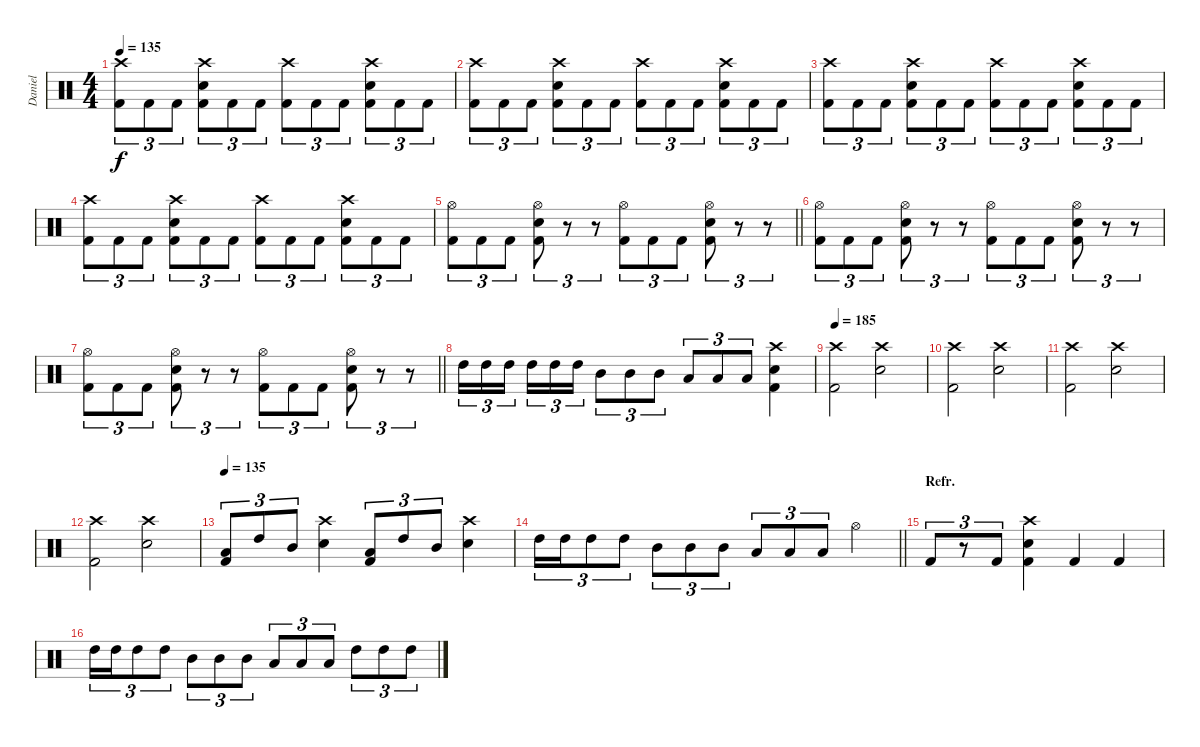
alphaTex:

\track ("Daniel" "Daniel") {instrument percussion}
\staff {score}
\articulation defaults
\ts (4 4)
\tempo 135
\clef neutral
\ks c
("Crash high (hit)" "Kick (hit) 2").8{tu (3 2) dy f} "Kick (hit) 2".8{tu (3 2)} "Kick (hit) 2".8{tu (3 2)} ("Crash high (hit)" "Electric Snare (hit)" "Kick (hit) 2").8{tu (3 2)} "Kick (hit) 2".8{tu (3 2)} "Kick (hit) 2".8{tu (3 2)} ("Crash high (hit)" "Kick (hit) 2").8{tu (3 2)} "Kick (hit) 2".8{tu (3 2)} "Kick (hit) 2".8{tu (3 2)} ("Crash high (hit)" "Electric Snare (hit)" "Kick (hit) 2").8{tu (3 2)} "Kick (hit) 2".8{tu (3 2)} "Kick (hit) 2".8{tu (3 2)} |
("Crash high (hit)" "Kick (hit) 2").8{tu (3 2)} "Kick (hit) 2".8{tu (3 2)} "Kick (hit) 2".8{tu (3 2)} ("Crash high (hit)" "Electric Snare (hit)" "Kick (hit) 2").8{tu (3 2)} "Kick (hit) 2".8{tu (3 2)} "Kick (hit) 2".8{tu (3 2)} ("Crash high (hit)" "Kick (hit) 2").8{tu (3 2)} "Kick (hit) 2".8{tu (3 2)} "Kick (hit) 2".8{tu (3 2)} ("Crash high (hit)" "Electric Snare (hit)" "Kick (hit) 2").8{tu (3 2)} "Kick (hit) 2".8{tu (3 2)} "Kick (hit) 2".8{tu (3 2)} |
("Crash high (hit)" "Kick (hit) 2").8{tu (3 2)} "Kick (hit) 2".8{tu (3 2)} "Kick (hit) 2".8{tu (3 2)} ("Crash high (hit)" "Electric Snare (hit)" "Kick (hit) 2").8{tu (3 2)} "Kick (hit) 2".8{tu (3 2)} "Kick (hit) 2".8{tu (3 2)} ("Crash high (hit)" "Kick (hit) 2").8{tu (3 2)} "Kick (hit) 2".8{tu (3 2)} "Kick (hit) 2".8{tu (3 2)} ("Crash high (hit)" "Electric Snare (hit)" "Kick (hit) 2").8{tu (3 2)} "Kick (hit) 2".8{tu (3 2)} "Kick (hit) 2".8{tu (3 2)} |
("Crash high (hit)" "Kick (hit) 2").8{tu (3 2)} "Kick (hit) 2".8{tu (3 2)} "Kick (hit) 2".8{tu (3 2)} ("Crash high (hit)" "Electric Snare (hit)" "Kick (hit) 2").8{tu (3 2)} "Kick (hit) 2".8{tu (3 2)} "Kick (hit) 2".8{tu (3 2)} ("Crash high (hit)" "Kick (hit) 2").8{tu (3 2)} "Kick (hit) 2".8{tu (3 2)} "Kick (hit) 2".8{tu (3 2)} ("Crash high (hit)" "Electric Snare (hit)" "Kick (hit) 2").8{tu (3 2)} "Kick (hit) 2".8{tu (3 2)} "Kick (hit) 2".8{tu (3 2)} |
\barLineRight lightlight
("Hi-Hat (open)" "Kick (hit) 2").8{tu (3 2)} "Kick (hit) 2".8{tu (3 2)} "Kick (hit) 2".8{tu (3 2)} ("Hi-Hat (open)" "Electric Snare (hit)" "Kick (hit) 2").8{tu (3 2)} r.8{tu (3 2)} r.8{tu (3 2)} ("Hi-Hat (open)" "Kick (hit) 2").8{tu (3 2)} "Kick (hit) 2".8{tu (3 2)} "Kick (hit) 2".8{tu (3 2)} ("Hi-Hat (open)" "Electric Snare (hit)" "Kick (hit) 2").8{tu (3 2)} r.8{tu (3 2)} r.8{tu (3 2)} |
("Hi-Hat (open)" "Kick (hit) 2").8{tu (3 2)} "Kick (hit) 2".8{tu (3 2)} "Kick (hit) 2".8{tu (3 2)} ("Hi-Hat (open)" "Electric Snare (hit)" "Kick (hit) 2").8{tu (3 2)} r.8{tu (3 2)} r.8{tu (3 2)} ("Hi-Hat (open)" "Kick (hit) 2").8{tu (3 2)} "Kick (hit) 2".8{tu (3 2)} "Kick (hit) 2".8{tu (3 2)} ("Hi-Hat (open)" "Electric Snare (hit)" "Kick (hit) 2").8{tu (3 2)} r.8{tu (3 2)} r.8{tu (3 2)} |
\barLineRight lightlight
("Hi-Hat (open)" "Kick (hit) 2").8{tu (3 2)} "Kick (hit) 2".8{tu (3 2)} "Kick (hit) 2".8{tu (3 2)} ("Hi-Hat (open)" "Electric Snare (hit)" "Kick (hit) 2").8{tu (3 2)} r.8{tu (3 2)} r.8{tu (3 2)} ("Hi-Hat (open)" "Kick (hit) 2").8{tu (3 2)} "Kick (hit) 2".8{tu (3 2)} "Kick (hit) 2".8{tu (3 2)} ("Hi-Hat (open)" "Electric Snare (hit)" "Kick (hit) 2").8{tu (3 2)} r.8{tu (3 2)} r.8{tu (3 2)} |
"High Tom (hit)".16{tu (3 2)} "High Tom (hit)".16{tu (3 2)} "High Tom (hit)".16{tu (3 2) beam splitsecondary} "High Tom (hit)".16{tu (3 2)} "High Tom (hit)".16{tu (3 2)} "High Tom (hit)".16{tu (3 2)} "Mid Tom (hit)".8{tu (3 2)} "Mid Tom (hit)".8{tu (3 2)} "Mid Tom (hit)".8{tu (3 2)} "Low Tom (hit)".8{tu (3 2)} "Low Tom (hit)".8{tu (3 2)} "Low Tom (hit)".8{tu (3 2)} ("Electric Snare (hit)" "Crash high (hit)" "Kick (hit) 2").4 |
\tempo 190
\tempo 185
("Crash high (hit)" "Kick (hit) 2").2 ("Crash high (hit)" "Electric Snare (hit)").2 |
("Crash high (hit)" "Kick (hit) 2").2 ("Crash high (hit)" "Electric Snare (hit)").2 |
("Crash high (hit)" "Kick (hit) 2").2 ("Crash high (hit)" "Electric Snare (hit)").2 |
("Crash high (hit)" "Kick (hit) 2").2 ("Crash high (hit)" "Electric Snare (hit)").2 |
\tempo 135
("Low Tom (hit)" "Kick (hit) 2").8{tu (3 2)} "High Tom (hit)".8{tu (3 2)} "Mid Tom (hit)".8{tu (3 2)} ("Crash high (hit)" "Electric Snare (hit)").4 ("Low Tom (hit)" "Kick (hit) 2").8{tu (3 2)} "High Tom (hit)".8{tu (3 2)} "Mid Tom (hit)".8{tu (3 2)} ("Crash high (hit)" "Electric Snare (hit)").4 |
\barLineRight lightlight "High Tom (hit)".16{tu (3 2)} "High Tom (hit)".16{tu (3 2)} "High Tom (hit)".8{tu (3 2)} "High Tom (hit)".8{tu (3 2)} "Mid Tom (hit)".8{tu (3 2)} "Mid Tom (hit)".8{tu (3 2)} "Mid Tom (hit)".8{tu (3 2)} "Low Tom (hit)".8{tu (3 2)} "Low Tom (hit)".8{tu (3 2)} "Low Tom (hit)".8{tu (3 2)} "Hi-Hat (open)".4
|
\section ("" "Refr.")
"Kick (hit) 2".8{tu (3 2)} r.8{tu (3 2)} "Kick (hit) 2".8{tu (3 2)} ("Crash high (hit)" "Electric Snare (hit)" "Kick (hit) 2").4 "Kick (hit) 2".4 "Kick (hit) 2".4 |
"High Tom (hit)".16{tu (3 2)} "High Tom (hit)".16{tu (3 2)} "High Tom (hit)".8{tu (3 2)} "High Tom (hit)".8{tu (3 2)} "Mid Tom (hit)".8{tu (3 2)} "Mid Tom (hit)".8{tu (3 2)} "Mid Tom (hit)".8{tu (3 2)} "Low Tom (hit)".8{tu (3 2)} "Low Tom (hit)".8{tu (3 2)} "Low Tom (hit)".8{tu (3 2)} "High Tom (hit)".8{tu (3 2)} "High Tom (hit)".8{tu (3 2)} "High Tom (hit)".8{tu (3 2)}
